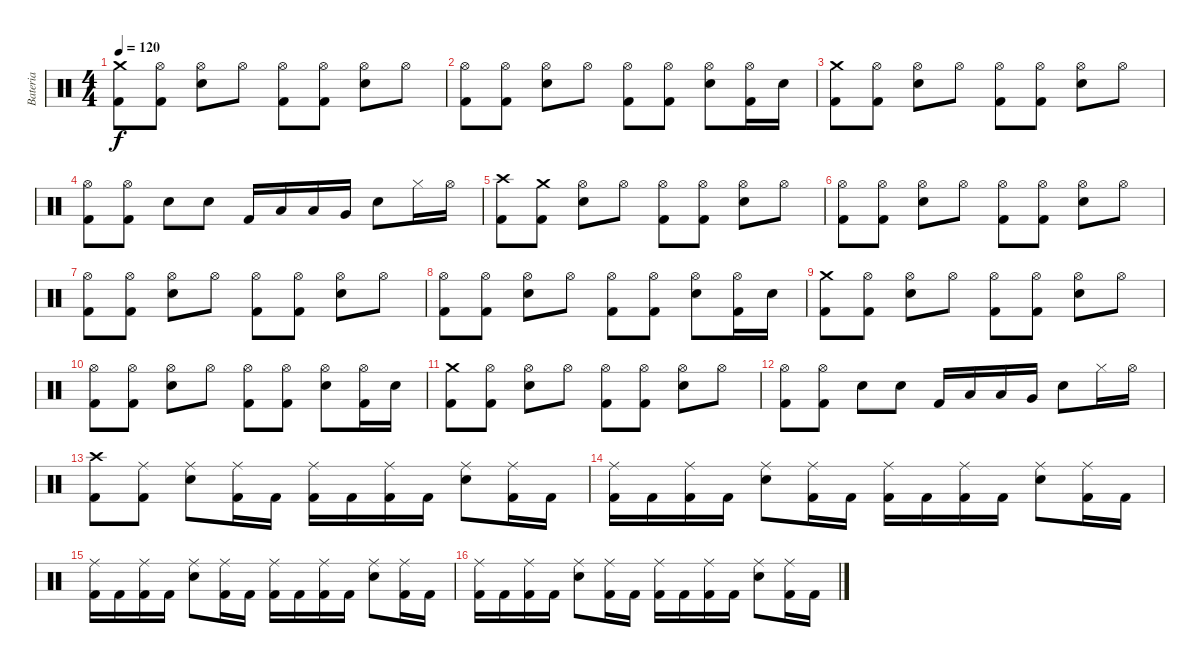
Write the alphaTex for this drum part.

\track ("Bateria" "Bateria") {instrument percussion}
\staff {score}
\articulation defaults
\ts (4 4)
\tempo 120
\clef neutral
\ks c
("Crash medium (hit)" "Kick (hit) 2").8{dy f} ("Hi-Hat (open)" "Kick (hit) 2").8 ("Hi-Hat (open)" "Electric Snare (hit)").8 "Hi-Hat (open)".8 ("Hi-Hat (open)" "Kick (hit) 2").8 ("Hi-Hat (open)" "Kick (hit) 2").8 ("Hi-Hat (open)" "Electric Snare (hit)").8 "Hi-Hat (open)".8 |
("Hi-Hat (open)" "Kick (hit) 2").8 ("Hi-Hat (open)" "Kick (hit) 2").8 ("Hi-Hat (open)" "Electric Snare (hit)").8 "Hi-Hat (open)".8 ("Hi-Hat (open)" "Kick (hit) 2").8 ("Hi-Hat (open)" "Kick (hit) 2").8 ("Hi-Hat (open)" "Electric Snare (hit)").8 ("Hi-Hat (open)" "Kick (hit) 2").16 "Electric Snare (hit)".16 |
("Crash medium (hit)" "Kick (hit) 2").8 ("Hi-Hat (open)" "Kick (hit) 2").8 ("Hi-Hat (open)" "Electric Snare (hit)").8 "Hi-Hat (open)".8 ("Hi-Hat (open)" "Kick (hit) 2").8 ("Hi-Hat (open)" "Kick (hit) 2").8 ("Hi-Hat (open)" "Electric Snare (hit)").8 "Hi-Hat (open)".8 |
("Hi-Hat (open)" "Kick (hit) 2").8 ("Hi-Hat (open)" "Kick (hit) 2").8 "Electric Snare (hit)".8 "Electric Snare (hit)".8 "Kick (hit) 2".16 "Low Tom (hit)".16 "Low Tom (hit)".16 "Very Low Tom (hit)".16 "Electric Snare (hit)".8 "Hi-Hat (closed)".16 "Hi-Hat (open)".16 |
("Crash high (hit)" "Kick (hit) 2").8 ("Crash medium (hit)" "Kick (hit) 2").8 ("Hi-Hat (open)" "Electric Snare (hit)").8 "Hi-Hat (open)".8 ("Hi-Hat (open)" "Kick (hit) 2").8 ("Hi-Hat (open)" "Kick (hit) 2").8 ("Hi-Hat (open)" "Electric Snare (hit)").8 "Hi-Hat (open)".8 |
("Hi-Hat (open)" "Kick (hit) 2").8 ("Hi-Hat (open)" "Kick (hit) 2").8 ("Hi-Hat (open)" "Electric Snare (hit)").8 "Hi-Hat (open)".8 ("Hi-Hat (open)" "Kick (hit) 2").8 ("Hi-Hat (open)" "Kick (hit) 2").8 ("Hi-Hat (open)" "Electric Snare (hit)").8 "Hi-Hat (open)".8 |
("Hi-Hat (open)" "Kick (hit) 2").8 ("Hi-Hat (open)" "Kick (hit) 2").8 ("Hi-Hat (open)" "Electric Snare (hit)").8 "Hi-Hat (open)".8 ("Hi-Hat (open)" "Kick (hit) 2").8 ("Hi-Hat (open)" "Kick (hit) 2").8 ("Hi-Hat (open)" "Electric Snare (hit)").8 "Hi-Hat (open)".8 |
("Hi-Hat (open)" "Kick (hit) 2").8 ("Hi-Hat (open)" "Kick (hit) 2").8 ("Hi-Hat (open)" "Electric Snare (hit)").8 "Hi-Hat (open)".8 ("Hi-Hat (open)" "Kick (hit) 2").8 ("Hi-Hat (open)" "Kick (hit) 2").8 ("Hi-Hat (open)" "Electric Snare (hit)").8 ("Hi-Hat (open)" "Kick (hit) 2").16 "Electric Snare (hit)".16 |
("Crash medium (hit)" "Kick (hit) 2").8 ("Hi-Hat (open)" "Kick (hit) 2").8 ("Hi-Hat (open)" "Electric Snare (hit)").8 "Hi-Hat (open)".8 ("Hi-Hat (open)" "Kick (hit) 2").8 ("Hi-Hat (open)" "Kick (hit) 2").8 ("Hi-Hat (open)" "Electric Snare (hit)").8 "Hi-Hat (open)".8 |
("Hi-Hat (open)" "Kick (hit) 2").8 ("Hi-Hat (open)" "Kick (hit) 2").8 ("Hi-Hat (open)" "Electric Snare (hit)").8 "Hi-Hat (open)".8 ("Hi-Hat (open)" "Kick (hit) 2").8 ("Hi-Hat (open)" "Kick (hit) 2").8 ("Hi-Hat (open)" "Electric Snare (hit)").8 ("Hi-Hat (open)" "Kick (hit) 2").16 "Electric Snare (hit)".16 |
("Crash medium (hit)" "Kick (hit) 2").8 ("Hi-Hat (open)" "Kick (hit) 2").8 ("Hi-Hat (open)" "Electric Snare (hit)").8 "Hi-Hat (open)".8 ("Hi-Hat (open)" "Kick (hit) 2").8 ("Hi-Hat (open)" "Kick (hit) 2").8 ("Hi-Hat (open)" "Electric Snare (hit)").8 "Hi-Hat (open)".8 |
("Hi-Hat (open)" "Kick (hit) 2").8 ("Hi-Hat (open)" "Kick (hit) 2").8 "Electric Snare (hit)".8 "Electric Snare (hit)".8 "Kick (hit) 2".16 "Low Tom (hit)".16 "Low Tom (hit)".16 "Very Low Tom (hit)".16 "Electric Snare (hit)".8 "Hi-Hat (closed)".16 "Hi-Hat (open)".16 |
("Crash high (hit)" "Kick (hit) 2").8 ("Ride (middle)" "Kick (hit) 2").8 ("Ride (middle)" "Electric Snare (hit)").8 ("Ride (middle)" "Kick (hit) 2").16 "Kick (hit) 2".16 ("Ride (middle)" "Kick (hit) 2").16 "Kick (hit) 2".16 ("Ride (middle)" "Kick (hit) 2").16 "Kick (hit) 2".16 ("Ride (middle)" "Electric Snare (hit)").8 ("Ride (middle)" "Kick (hit) 2").16 "Kick (hit) 2".16 |
("Ride (middle)" "Kick (hit) 2").16 "Kick (hit) 2".16 ("Ride (middle)" "Kick (hit) 2").16 "Kick (hit) 2".16 ("Ride (middle)" "Electric Snare (hit)").8 ("Ride (middle)" "Kick (hit) 2").16 "Kick (hit) 2".16 ("Ride (middle)" "Kick (hit) 2").16 "Kick (hit) 2".16 ("Ride (middle)" "Kick (hit) 2").16 "Kick (hit) 2".16 ("Ride (middle)" "Electric Snare (hit)").8 ("Ride (middle)" "Kick (hit) 2").16 "Kick (hit) 2".16 |
("Ride (middle)" "Kick (hit) 2").16 "Kick (hit) 2".16 ("Ride (middle)" "Kick (hit) 2").16 "Kick (hit) 2".16 ("Ride (middle)" "Electric Snare (hit)").8 ("Ride (middle)" "Kick (hit) 2").16 "Kick (hit) 2".16 ("Ride (middle)" "Kick (hit) 2").16 "Kick (hit) 2".16 ("Ride (middle)" "Kick (hit) 2").16 "Kick (hit) 2".16 ("Ride (middle)" "Electric Snare (hit)").8 ("Ride (middle)" "Kick (hit) 2").16 "Kick (hit) 2".16 |
("Ride (middle)" "Kick (hit) 2").16 "Kick (hit) 2".16 ("Ride (middle)" "Kick (hit) 2").16 "Kick (hit) 2".16 ("Ride (middle)" "Electric Snare (hit)").8 ("Ride (middle)" "Kick (hit) 2").16 "Kick (hit) 2".16 ("Ride (middle)" "Kick (hit) 2").16 "Kick (hit) 2".16 ("Ride (middle)" "Kick (hit) 2").16 "Kick (hit) 2".16 ("Ride (middle)" "Electric Snare (hit)").8 ("Ride (middle)" "Kick (hit) 2").16 "Kick (hit) 2".16
